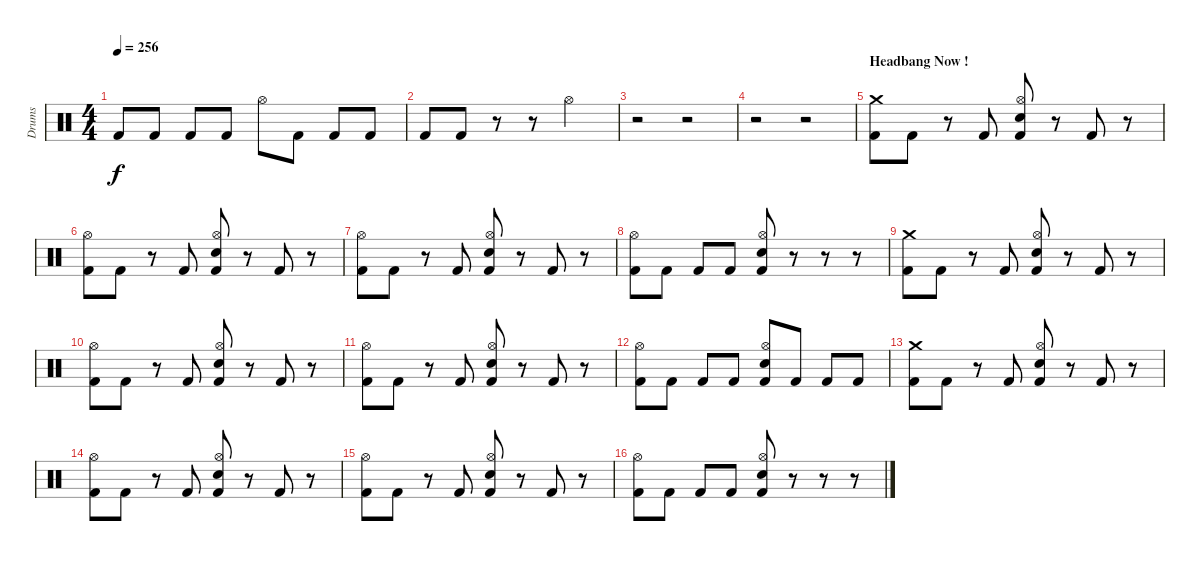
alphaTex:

\track ("Drums" "Drums") {instrument percussion}
\staff {score}
\articulation defaults
\ts (4 4)
\tempo 256
\clef neutral
\ks c "Kick (hit) 2".8{dy f} "Kick (hit) 2".8 "Kick (hit) 2".8 "Kick (hit) 2".8 "Hi-Hat (open)".8 "Kick (hit) 2".8 "Kick (hit) 2".8 "Kick (hit) 2".8
|
"Kick (hit) 2".8 "Kick (hit) 2".8 r.8 r.8 "Hi-Hat (open)".2 |
r.2 r.2 |
r.2 r.2 |
\section ("" "Headbang Now !")
("Crash medium (hit)" "Kick (hit) 2").8 "Kick (hit) 2".8 r.8 "Kick (hit) 2".8 ("Hi-Hat (open)" "Snare (hit) 2" "Kick (hit) 2").8 r.8 "Kick (hit) 2".8 r.8 |
("Hi-Hat (open)" "Kick (hit) 2").8 "Kick (hit) 2".8 r.8 "Kick (hit) 2".8 ("Hi-Hat (open)" "Snare (hit) 2" "Kick (hit) 2").8 r.8 "Kick (hit) 2".8 r.8 |
("Hi-Hat (open)" "Kick (hit) 2").8 "Kick (hit) 2".8 r.8 "Kick (hit) 2".8 ("Hi-Hat (open)" "Snare (hit) 2" "Kick (hit) 2").8 r.8 "Kick (hit) 2".8 r.8 |
("Hi-Hat (open)" "Kick (hit) 2").8 "Kick (hit) 2".8 "Kick (hit) 2".8 "Kick (hit) 2".8 ("Hi-Hat (open)" "Snare (hit) 2" "Kick (hit) 2").8 r.8 r.8 r.8 |
("Crash medium (hit)" "Kick (hit) 2").8 "Kick (hit) 2".8 r.8 "Kick (hit) 2".8 ("Hi-Hat (open)" "Snare (hit) 2" "Kick (hit) 2").8 r.8 "Kick (hit) 2".8 r.8 |
("Hi-Hat (open)" "Kick (hit) 2").8 "Kick (hit) 2".8 r.8 "Kick (hit) 2".8 ("Hi-Hat (open)" "Snare (hit) 2" "Kick (hit) 2").8 r.8 "Kick (hit) 2".8 r.8 |
("Hi-Hat (open)" "Kick (hit) 2").8 "Kick (hit) 2".8 r.8 "Kick (hit) 2".8 ("Hi-Hat (open)" "Snare (hit) 2" "Kick (hit) 2").8 r.8 "Kick (hit) 2".8 r.8 |
("Hi-Hat (open)" "Kick (hit) 2").8 "Kick (hit) 2".8 "Kick (hit) 2".8 "Kick (hit) 2".8 ("Hi-Hat (open)" "Snare (hit) 2" "Kick (hit) 2").8 "Kick (hit) 2".8 "Kick (hit) 2".8 "Kick (hit) 2".8 |
("Crash medium (hit)" "Kick (hit) 2").8 "Kick (hit) 2".8 r.8 "Kick (hit) 2".8 ("Hi-Hat (open)" "Snare (hit) 2" "Kick (hit) 2").8 r.8 "Kick (hit) 2".8 r.8 |
("Hi-Hat (open)" "Kick (hit) 2").8 "Kick (hit) 2".8 r.8 "Kick (hit) 2".8 ("Hi-Hat (open)" "Snare (hit) 2" "Kick (hit) 2").8 r.8 "Kick (hit) 2".8 r.8 |
("Hi-Hat (open)" "Kick (hit) 2").8 "Kick (hit) 2".8 r.8 "Kick (hit) 2".8 ("Hi-Hat (open)" "Snare (hit) 2" "Kick (hit) 2").8 r.8 "Kick (hit) 2".8 r.8 |
("Hi-Hat (open)" "Kick (hit) 2").8 "Kick (hit) 2".8 "Kick (hit) 2".8 "Kick (hit) 2".8 ("Hi-Hat (open)" "Snare (hit) 2" "Kick (hit) 2").8 r.8 r.8 r.8
